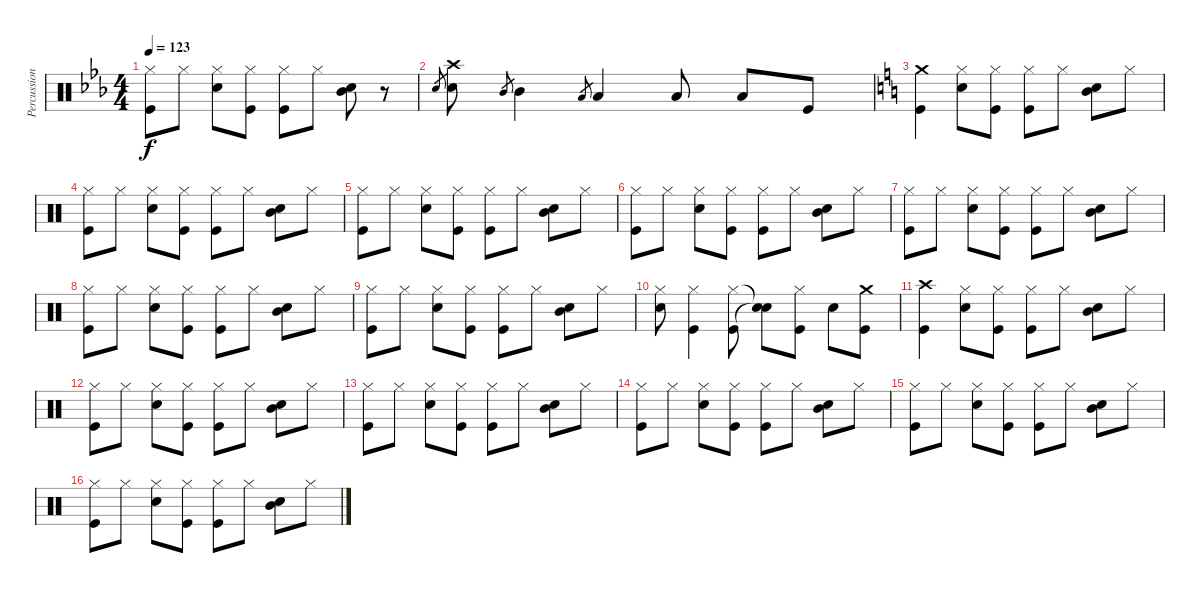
\track ("Percussion" "Percussion") {instrument percussion}
\staff {score}
\articulation defaults
\ts (4 4)
\tempo 123
\clef neutral
\ks eb
("Hi-Hat (closed)" "Kick (hit)").8{dy f} "Hi-Hat (closed)".8 ("Hi-Hat (closed)" "Snare (hit) 2").8 ("Hi-Hat (closed)" "Kick (hit)").8 ("Hi-Hat (closed)" "Kick (hit)").8 "Hi-Hat (closed)".8 ("Mid Tom (hit)" "Snare (hit) 2").8 r.8 |
"Snare (hit) 2".8{gr} ("Crash high (hit)" "Snare (hit) 2").8 "Mid Tom (hit)".8{gr} "Mid Tom (hit)".4 "Low Tom (hit)".8{gr} "Low Tom (hit)".4 "Low Tom (hit)".8 "Low Tom (hit)".8 "Kick (hit)".8 |
\ks c
("Crash medium (hit)" "Kick (hit)").4 ("Hi-Hat (closed)" "Snare (hit) 2").8 ("Hi-Hat (closed)" "Kick (hit)").8 ("Hi-Hat (closed)" "Kick (hit)").8 "Hi-Hat (closed)".8 ("Mid Tom (hit)" "Snare (hit) 2").8 "Hi-Hat (closed)".8 |
("Hi-Hat (closed)" "Kick (hit)").8 "Hi-Hat (closed)".8 ("Hi-Hat (closed)" "Snare (hit) 2").8 ("Hi-Hat (closed)" "Kick (hit)").8 ("Hi-Hat (closed)" "Kick (hit)").8 "Hi-Hat (closed)".8 ("Mid Tom (hit)" "Snare (hit) 2").8 "Hi-Hat (closed)".8 |
("Hi-Hat (closed)" "Kick (hit)").8 "Hi-Hat (closed)".8 ("Hi-Hat (closed)" "Snare (hit) 2").8 ("Hi-Hat (closed)" "Kick (hit)").8 ("Hi-Hat (closed)" "Kick (hit)").8 "Hi-Hat (closed)".8 ("Mid Tom (hit)" "Snare (hit) 2").8 "Hi-Hat (closed)".8 |
("Hi-Hat (closed)" "Kick (hit)").8 "Hi-Hat (closed)".8 ("Hi-Hat (closed)" "Snare (hit) 2").8 ("Hi-Hat (closed)" "Kick (hit)").8 ("Hi-Hat (closed)" "Kick (hit)").8 "Hi-Hat (closed)".8 ("Mid Tom (hit)" "Snare (hit) 2").8 "Hi-Hat (closed)".8 |
("Hi-Hat (closed)" "Kick (hit)").8 "Hi-Hat (closed)".8 ("Hi-Hat (closed)" "Snare (hit) 2").8 ("Hi-Hat (closed)" "Kick (hit)").8 ("Hi-Hat (closed)" "Kick (hit)").8 "Hi-Hat (closed)".8 ("Mid Tom (hit)" "Snare (hit) 2").8 "Hi-Hat (closed)".8 |
("Hi-Hat (closed)" "Kick (hit)").8 "Hi-Hat (closed)".8 ("Hi-Hat (closed)" "Snare (hit) 2").8 ("Hi-Hat (closed)" "Kick (hit)").8 ("Hi-Hat (closed)" "Kick (hit)").8 "Hi-Hat (closed)".8 ("Mid Tom (hit)" "Snare (hit) 2").8 "Hi-Hat (closed)".8 |
("Hi-Hat (closed)" "Kick (hit)").8 "Hi-Hat (closed)".8 ("Hi-Hat (closed)" "Snare (hit) 2").8 ("Hi-Hat (closed)" "Kick (hit)").8 ("Hi-Hat (closed)" "Kick (hit)").8 "Hi-Hat (closed)".8 ("Mid Tom (hit)" "Snare (hit) 2").8 "Hi-Hat (closed)".8 |
("Hi-Hat (closed)" "Snare (hit) 2").8 ("Hi-Hat (closed)" "Kick (hit)").4 ("Hi-Hat (closed)" "Kick (hit)").8 ("Snare (hit)"{t} "Snare (hit)"{t}).8 ("Hi-Hat (closed)" "Kick (hit)").8 "Snare (hit) 2".8 ("Crash medium (hit)" "Kick (hit)").8 |
("Crash high (hit)" "Kick (hit)").4 ("Hi-Hat (closed)" "Snare (hit) 2").8 ("Hi-Hat (closed)" "Kick (hit)").8 ("Hi-Hat (closed)" "Kick (hit)").8 "Hi-Hat (closed)".8 ("Mid Tom (hit)" "Snare (hit) 2").8 "Hi-Hat (closed)".8 |
("Hi-Hat (closed)" "Kick (hit)").8 "Hi-Hat (closed)".8 ("Hi-Hat (closed)" "Snare (hit) 2").8 ("Hi-Hat (closed)" "Kick (hit)").8 ("Hi-Hat (closed)" "Kick (hit)").8 "Hi-Hat (closed)".8 ("Mid Tom (hit)" "Snare (hit) 2").8 "Hi-Hat (closed)".8 |
("Hi-Hat (closed)" "Kick (hit)").8 "Hi-Hat (closed)".8 ("Hi-Hat (closed)" "Snare (hit) 2").8 ("Hi-Hat (closed)" "Kick (hit)").8 ("Hi-Hat (closed)" "Kick (hit)").8 "Hi-Hat (closed)".8 ("Mid Tom (hit)" "Snare (hit) 2").8 "Hi-Hat (closed)".8 |
("Hi-Hat (closed)" "Kick (hit)").8 "Hi-Hat (closed)".8 ("Hi-Hat (closed)" "Snare (hit) 2").8 ("Hi-Hat (closed)" "Kick (hit)").8 ("Hi-Hat (closed)" "Kick (hit)").8 "Hi-Hat (closed)".8 ("Mid Tom (hit)" "Snare (hit) 2").8 "Hi-Hat (closed)".8 |
("Hi-Hat (closed)" "Kick (hit)").8 "Hi-Hat (closed)".8 ("Hi-Hat (closed)" "Snare (hit) 2").8 ("Hi-Hat (closed)" "Kick (hit)").8 ("Hi-Hat (closed)" "Kick (hit)").8 "Hi-Hat (closed)".8 ("Mid Tom (hit)" "Snare (hit) 2").8 "Hi-Hat (closed)".8 |
("Hi-Hat (closed)" "Kick (hit)").8 "Hi-Hat (closed)".8 ("Hi-Hat (closed)" "Snare (hit) 2").8 ("Hi-Hat (closed)" "Kick (hit)").8 ("Hi-Hat (closed)" "Kick (hit)").8 "Hi-Hat (closed)".8 ("Mid Tom (hit)" "Snare (hit) 2").8 "Hi-Hat (closed)".8
